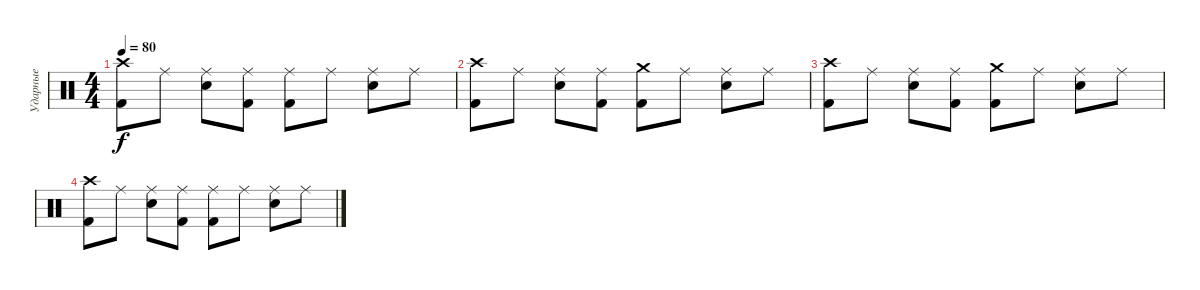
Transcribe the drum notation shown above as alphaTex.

\track ("Ударные" "Ударные") {instrument percussion}
\staff {score}
\articulation defaults
\ts (4 4)
\tempo 80
\clef neutral
\ks c
("Crash high (hit)" "Kick (hit) 2").8{dy f} "Ride (middle)".8 ("Ride (middle)" "Electric Snare (hit)").8 ("Ride (middle)" "Kick (hit) 2").8 ("Ride (middle)" "Kick (hit) 2").8 "Ride (middle)".8 ("Ride (middle)" "Electric Snare (hit)").8 "Ride (middle)".8 |
("Crash high (hit)" "Kick (hit) 2").8 "Ride (middle)".8 ("Ride (middle)" "Electric Snare (hit)").8 ("Ride (middle)" "Kick (hit) 2").8 ("Crash medium (hit)" "Kick (hit) 2").8 "Ride (middle)".8 ("Ride (middle)" "Electric Snare (hit)").8 "Ride (middle)".8 |
("Crash high (hit)" "Kick (hit) 2").8 "Ride (middle)".8 ("Ride (middle)" "Electric Snare (hit)").8 ("Ride (middle)" "Kick (hit) 2").8 ("Crash medium (hit)" "Kick (hit) 2").8 "Ride (middle)".8 ("Ride (middle)" "Electric Snare (hit)").8 "Ride (middle)".8 |
("Crash high (hit)" "Kick (hit) 2").8 "Ride (middle)".8 ("Ride (middle)" "Electric Snare (hit)").8 ("Ride (middle)" "Kick (hit) 2").8 ("Ride (middle)" "Kick (hit) 2").8 "Ride (middle)".8 ("Ride (middle)" "Electric Snare (hit)").8 "Ride (middle)".8
